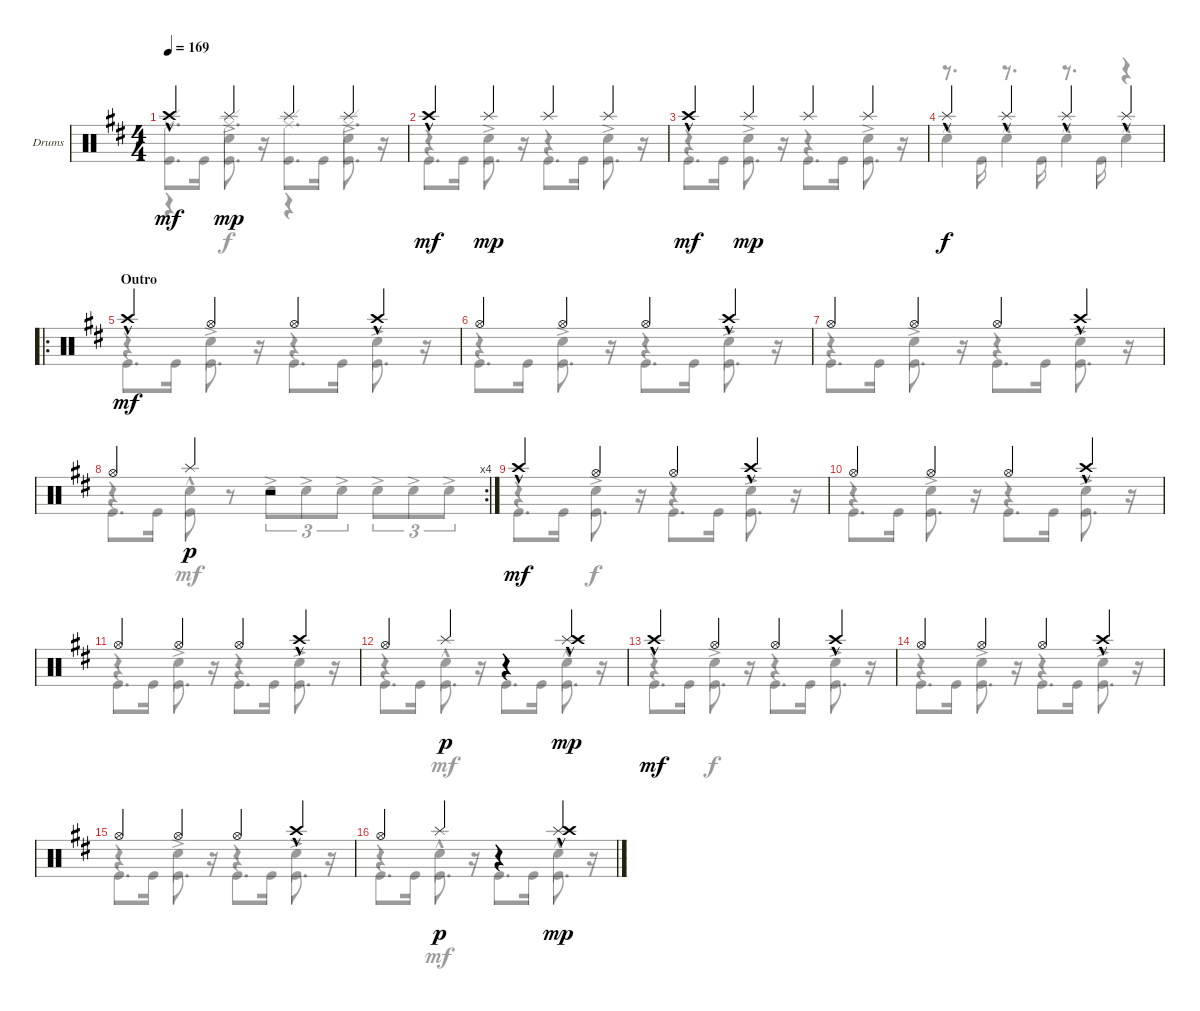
\defaultSystemsLayout 4
\bracketExtendMode groupsimilarinstruments
\firstSystemTrackNameOrientation horizontal
\otherSystemsTrackNameOrientation horizontal
\track ("Drumkit (Wolf Gemora)" "Drums") {instrument percussion}
\staff {score}
\articulation defaults
\voice
\ts (4 4)
\tempo 169
\clef neutral
\ks bminor "Crash high (hit)"{hac}.4{dy mf} "Splash (hit)".4{dy mp} "Splash (hit)".4 "Splash (hit)".4
|
"Crash high (hit)"{hac}.4{dy mf} "Splash (hit)".4{dy mp} "Splash (hit)".4 "Splash (hit)".4 |
"Crash high (hit)"{hac}.4{dy mf} "Splash (hit)".4{dy mp} "Splash (hit)".4 "Splash (hit)".4 |
"Splash (hit)"{hac}.4{dy f} "Splash (hit)"{hac}.4 "Splash (hit)"{hac}.4 "Splash (hit)"{hac}.4 |
\ro
\section ("" "Outro")
"Crash high (hit)"{hac}.4{dy mf} "Hi-Hat (open)".4 "Hi-Hat (open)".4 "Crash high (hit)"{hac}.4 |
"Hi-Hat (open)".4 "Hi-Hat (open)".4 "Hi-Hat (open)".4 "Crash high (hit)"{hac}.4 |
"Hi-Hat (open)".4 "Hi-Hat (open)".4 "Hi-Hat (open)".4 "Crash high (hit)"{hac}.4 |
\rc 4 "Hi-Hat (open)".4 "Splash (hit)".4{dy p}
r.2 |
"Crash high (hit)"{hac}.4{dy mf} "Hi-Hat (open)".4 "Hi-Hat (open)".4 "Crash high (hit)"{hac}.4 |
"Hi-Hat (open)".4 "Hi-Hat (open)".4 "Hi-Hat (open)".4 "Crash high (hit)"{hac}.4 |
"Hi-Hat (open)".4 "Hi-Hat (open)".4 "Hi-Hat (open)".4 "Crash high (hit)"{hac}.4 |
"Hi-Hat (open)".4 "Splash (hit)".4{dy p} r.4 ("Splash (hit)"{hac} "Crash high (hit)"{hac}).4{dy mp} |
"Crash high (hit)"{hac}.4{dy mf} "Hi-Hat (open)".4 "Hi-Hat (open)".4 "Crash high (hit)"{hac}.4 |
"Hi-Hat (open)".4 "Hi-Hat (open)".4 "Hi-Hat (open)".4 "Crash high (hit)"{hac}.4 |
"Hi-Hat (open)".4 "Hi-Hat (open)".4 "Hi-Hat (open)".4 "Crash high (hit)"{hac}.4 |
"Hi-Hat (open)".4 "Splash (hit)".4{dy p} r.4 ("Splash (hit)"{hac} "Crash high (hit)"{hac}).4{dy mp}
\voice
\clef neutral
\ottava regular
\simile none
\ks bminor
("Kick (hit)" "Ride (edge)").8{d dy mf} "Kick (hit)".16 ("Kick (hit)" "Ride (edge)").8{d} r.16 ("Kick (hit)" "Ride (edge)").8{d} "Kick (hit)".16 ("Kick (hit)" "Ride (edge)").8{d} r.16 |
"Kick (hit)".8{d} "Kick (hit)".16 "Kick (hit)".8{d} r.16 "Kick (hit)".8{d} "Kick (hit)".16 "Kick (hit)".8{d} r.16 |
"Kick (hit)".8{d} "Kick (hit)".16 "Kick (hit)".8{d} r.16 "Kick (hit)".8{d} "Kick (hit)".16 "Kick (hit)".8{d} r.16 |
r.8{d} "Kick (hit)".16 r.8{d} "Kick (hit)".16 r.8{d} "Kick (hit)".16 r.4 |
"Kick (hit)".8{d} "Kick (hit)".16 "Kick (hit)".8{d} r.16 "Kick (hit)".8{d} "Kick (hit)".16 "Kick (hit)".8{d} r.16 |
"Kick (hit)".8{d} "Kick (hit)".16 "Kick (hit)".8{d} r.16 "Kick (hit)".8{d} "Kick (hit)".16 "Kick (hit)".8{d} r.16 |
"Kick (hit)".8{d} "Kick (hit)".16 "Kick (hit)".8{d} r.16 "Kick (hit)".8{d} "Kick (hit)".16 "Kick (hit)".8{d} r.16 |
"Kick (hit)".8{d} "Kick (hit)".16 "Kick (hit)".8 r.8 r.2 |
"Kick (hit)".8{d} "Kick (hit)".16 "Kick (hit)".8{d} r.16 "Kick (hit)".8{d} "Kick (hit)".16 "Kick (hit)".8{d} r.16 |
"Kick (hit)".8{d} "Kick (hit)".16 "Kick (hit)".8{d} r.16 "Kick (hit)".8{d} "Kick (hit)".16 "Kick (hit)".8{d} r.16 |
"Kick (hit)".8{d} "Kick (hit)".16 "Kick (hit)".8{d} r.16 "Kick (hit)".8{d} "Kick (hit)".16 "Kick (hit)".8{d} r.16 |
"Kick (hit)".8{d} "Kick (hit)".16 "Kick (hit)".8{d} r.16 "Kick (hit)".8{d} "Kick (hit)".16 "Kick (hit)".8{d} r.16 |
"Kick (hit)".8{d} "Kick (hit)".16 "Kick (hit)".8{d} r.16 "Kick (hit)".8{d} "Kick (hit)".16 "Kick (hit)".8{d} r.16 |
"Kick (hit)".8{d} "Kick (hit)".16 "Kick (hit)".8{d} r.16 "Kick (hit)".8{d} "Kick (hit)".16 "Kick (hit)".8{d} r.16 |
"Kick (hit)".8{d} "Kick (hit)".16 "Kick (hit)".8{d} r.16 "Kick (hit)".8{d} "Kick (hit)".16 "Kick (hit)".8{d} r.16 |
"Kick (hit)".8{d} "Kick (hit)".16 "Kick (hit)".8{d} r.16 "Kick (hit)".8{d} "Kick (hit)".16 "Kick (hit)".8{d} r.16
\voice
\clef neutral
\ottava regular
\simile none
\ks bminor
r.4{dy f} "Snare (hit) 2"{ac}.4 r.4 "Snare (hit) 2"{ac}.4 |
r.4 "Snare (hit) 2"{ac}.4 r.4 "Snare (hit) 2"{ac}.4 |
r.4 "Snare (hit) 2"{ac}.4 r.4 "Snare (hit) 2"{ac}.4 |
"Snare (hit) 2"{hac}.4 "Snare (hit) 2"{hac}.4 "Snare (hit) 2"{hac}.4 "Snare (hit) 2"{hac}.4 |
r.4 "Snare (hit) 2"{ac}.4 r.4 "Snare (hit) 2"{ac}.4 |
r.4 "Snare (hit) 2"{ac}.4 r.4 "Snare (hit) 2"{ac}.4 |
r.4 "Snare (hit) 2"{ac}.4 r.4 "Snare (hit) 2"{ac}.4 |
r.4 "Snare (hit) 2"{hac}.4{dy mf} "Snare (hit) 2"{ac}.8{tu (3 2)} "Snare (hit) 2"{ac}.8{tu (3 2)} "Snare (hit) 2"{ac}.8{tu (3 2)} "Snare (hit) 2"{ac}.8{tu (3 2)} "Snare (hit) 2"{ac}.8{tu (3 2)} "Snare (hit) 2"{ac}.8{tu (3 2)} |
r.4 "Snare (hit) 2"{ac}.4{dy f} r.4 "Snare (hit) 2"{ac}.4 |
r.4 "Snare (hit) 2"{ac}.4 r.4 "Snare (hit) 2"{ac}.4 |
r.4 "Snare (hit) 2"{ac}.4 r.4 "Snare (hit) 2"{ac}.4 |
r.4 "Snare (hit) 2"{hac}.4{dy mf} r.4 "Snare (hit) 2"{hac}.4 |
r.4 "Snare (hit) 2"{ac}.4{dy f} r.4 "Snare (hit) 2"{ac}.4 |
r.4 "Snare (hit) 2"{ac}.4 r.4 "Snare (hit) 2"{ac}.4 |
r.4 "Snare (hit) 2"{ac}.4 r.4 "Snare (hit) 2"{ac}.4 |
r.4 "Snare (hit) 2"{hac}.4{dy mf} r.4 "Snare (hit) 2"{hac}.4
